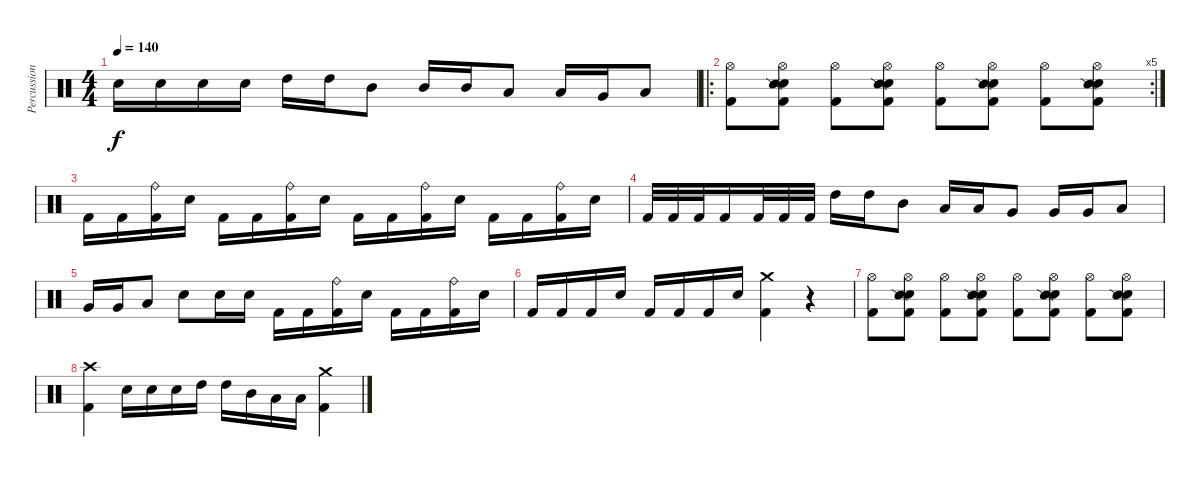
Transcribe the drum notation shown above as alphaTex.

\track ("Percussion" "Percussion") {instrument percussion}
\staff {score}
\articulation defaults
\ts (4 4)
\tempo 140
\clef neutral
\ks c "Electric Snare (hit)".16{dy f} "Electric Snare (hit)".16 "Electric Snare (hit)".16 "Electric Snare (hit)".16 "High Tom (hit)".16 "High Tom (hit)".16 "Mid Tom (hit)".8 "Mid Tom (hit)".16 "Mid Tom (hit)".16 "Low Tom (hit)".8 "Low Tom (hit)".16 "Very Low Tom (hit)".16 "Low Floor Tom (hit)".8
|
\ro
\rc 5
("Hi-Hat (open)" "Kick (hit) 2").8 ("Hi-Hat (open)" "Electric Snare (hit)" "Snare (side stick) 2" "Kick (hit) 2").8 ("Hi-Hat (open)" "Kick (hit) 2").8 ("Hi-Hat (open)" "Electric Snare (hit)" "Snare (side stick) 2" "Kick (hit) 2").8 ("Hi-Hat (open)" "Kick (hit) 2").8 ("Hi-Hat (open)" "Electric Snare (hit)" "Snare (side stick) 2" "Kick (hit) 2").8 ("Hi-Hat (open)" "Kick (hit) 2").8 ("Hi-Hat (open)" "Electric Snare (hit)" "Snare (side stick) 2" "Kick (hit) 2").8 |
"Kick (hit) 2".16{volume 13} "Kick (hit) 2".16 ("Ride (bell)" "Kick (hit) 2").16 "Electric Snare (hit)".16 "Kick (hit) 2".16 "Kick (hit) 2".16 ("Ride (bell)" "Kick (hit) 2").16 "Electric Snare (hit)".16 "Kick (hit) 2".16 "Kick (hit) 2".16 ("Ride (bell)" "Kick (hit) 2").16 "Electric Snare (hit)".16 "Kick (hit) 2".16 "Kick (hit) 2".16 ("Ride (bell)" "Kick (hit) 2").16 "Electric Snare (hit)".16 |
"Kick (hit) 2".32 "Kick (hit) 2".32 "Kick (hit) 2".32 "Kick (hit) 2".16 "Kick (hit) 2".32 "Kick (hit) 2".32 "Kick (hit) 2".32 "High Tom (hit)".16 "High Tom (hit)".16 "Mid Tom (hit)".8 "Low Tom (hit)".16 "Low Tom (hit)".16 "Very Low Tom (hit)".8 "Very Low Tom (hit)".16 "Very Low Tom (hit)".16 "Low Floor Tom (hit)".8 |
"Very Low Tom (hit)".16 "Very Low Tom (hit)".16 "Low Floor Tom (hit)".8 "Electric Snare (hit)".8 "Electric Snare (hit)".16 "Electric Snare (hit)".16 "Kick (hit) 2".16 "Kick (hit) 2".16 ("Ride (bell)" "Kick (hit) 2").16 "Electric Snare (hit)".16 "Kick (hit) 2".16 "Kick (hit) 2".16 ("Ride (bell)" "Kick (hit) 2").16 "Electric Snare (hit)".16 |
"Kick (hit) 2".16 "Kick (hit) 2".16 "Kick (hit) 2".16 "Electric Snare (hit)".16 "Kick (hit) 2".16 "Kick (hit) 2".16 "Kick (hit) 2".16 "Electric Snare (hit)".16 ("Crash medium (hit)" "Kick (hit) 2").4 r.4 |
("Hi-Hat (open)" "Kick (hit) 2").8 ("Hi-Hat (open)" "Electric Snare (hit)" "Snare (side stick) 2" "Kick (hit) 2").8 ("Hi-Hat (open)" "Kick (hit) 2").8 ("Hi-Hat (open)" "Electric Snare (hit)" "Snare (side stick) 2" "Kick (hit) 2").8 ("Hi-Hat (open)" "Kick (hit) 2").8 ("Hi-Hat (open)" "Electric Snare (hit)" "Snare (side stick) 2" "Kick (hit) 2").8 ("Hi-Hat (open)" "Kick (hit) 2").8 ("Hi-Hat (open)" "Electric Snare (hit)" "Snare (side stick) 2" "Kick (hit) 2").8 |
("Crash high (hit)" "Kick (hit) 2").4 "Electric Snare (hit)".16 "Electric Snare (hit)".16 "Electric Snare (hit)".16 "High Tom (hit)".16 "High Tom (hit)".16 "Mid Tom (hit)".16 "Low Tom (hit)".16 "Low Tom (hit)".16 ("Crash medium (hit)" "Kick (hit) 2").4
